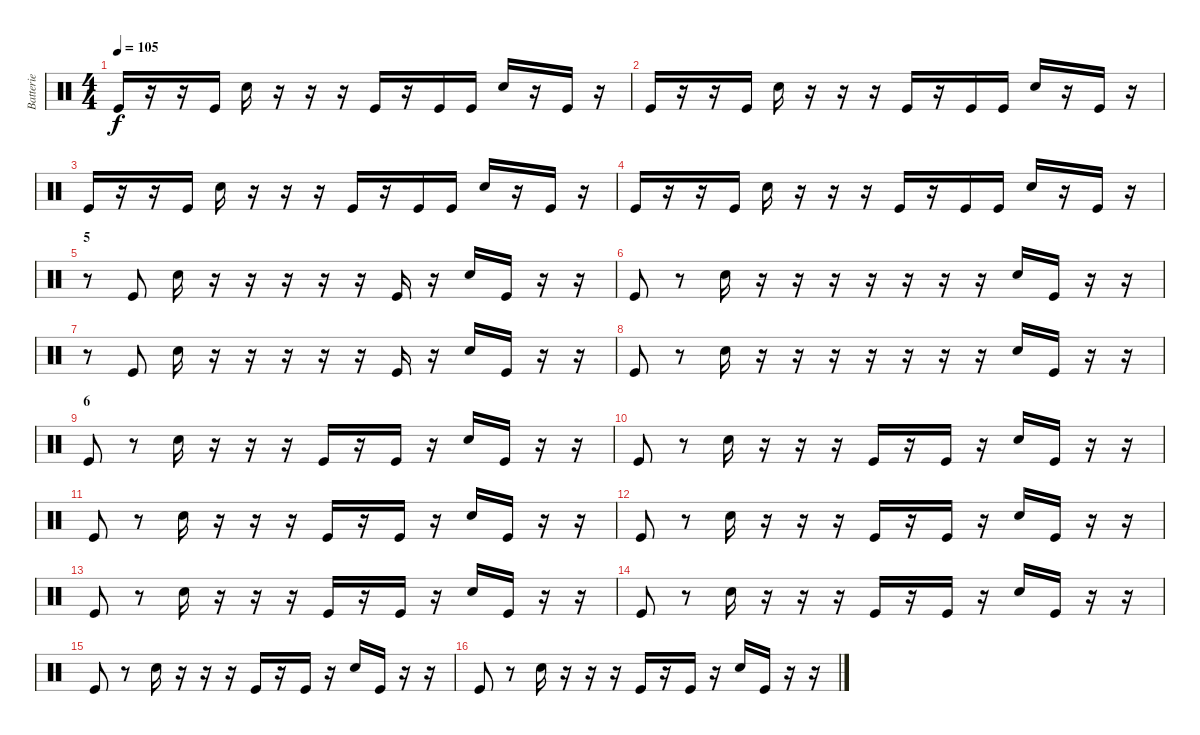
\track ("Batterie" "Batterie") {instrument percussion}
\staff {score}
\articulation defaults
\ts (4 4)
\tempo 105
\clef neutral
\ks c "Kick (hit)".16{dy f}
r.16 r.16 "Kick (hit)".16 "Electric Snare (hit)".16 r.16 r.16 r.16 "Kick (hit)".16 r.16 "Kick (hit)".16 "Kick (hit)".16 "Electric Snare (hit)".16 r.16 "Kick (hit)".16 r.16 |
"Kick (hit)".16 r.16 r.16 "Kick (hit)".16 "Electric Snare (hit)".16 r.16 r.16 r.16 "Kick (hit)".16 r.16 "Kick (hit)".16 "Kick (hit)".16 "Electric Snare (hit)".16 r.16 "Kick (hit)".16 r.16 |
"Kick (hit)".16 r.16 r.16 "Kick (hit)".16 "Electric Snare (hit)".16 r.16 r.16 r.16 "Kick (hit)".16 r.16 "Kick (hit)".16 "Kick (hit)".16 "Electric Snare (hit)".16 r.16 "Kick (hit)".16 r.16 |
"Kick (hit)".16 r.16 r.16 "Kick (hit)".16 "Electric Snare (hit)".16 r.16 r.16 r.16 "Kick (hit)".16 r.16 "Kick (hit)".16 "Kick (hit)".16 "Electric Snare (hit)".16 r.16 "Kick (hit)".16 r.16 |
\section ("" "5")
r.8 "Kick (hit)".8 "Electric Snare (hit)".16 r.16 r.16 r.16 r.16 r.16 "Kick (hit)".16 r.16 "Electric Snare (hit)".16 "Kick (hit)".16 r.16 r.16 |
"Kick (hit)".8 r.8 "Electric Snare (hit)".16 r.16 r.16 r.16 r.16 r.16 r.16 r.16 "Electric Snare (hit)".16 "Kick (hit)".16 r.16 r.16 |
r.8 "Kick (hit)".8 "Electric Snare (hit)".16 r.16 r.16 r.16 r.16 r.16 "Kick (hit)".16 r.16 "Electric Snare (hit)".16 "Kick (hit)".16 r.16 r.16 |
"Kick (hit)".8 r.8 "Electric Snare (hit)".16 r.16 r.16 r.16 r.16 r.16 r.16 r.16 "Electric Snare (hit)".16 "Kick (hit)".16 r.16 r.16 |
\section ("" "6")
"Kick (hit)".8 r.8 "Electric Snare (hit)".16 r.16 r.16 r.16 "Kick (hit)".16 r.16 "Kick (hit)".16 r.16 "Electric Snare (hit)".16 "Kick (hit)".16 r.16 r.16 |
"Kick (hit)".8 r.8 "Electric Snare (hit)".16 r.16 r.16 r.16 "Kick (hit)".16 r.16 "Kick (hit)".16 r.16 "Electric Snare (hit)".16 "Kick (hit)".16 r.16 r.16 |
"Kick (hit)".8 r.8 "Electric Snare (hit)".16 r.16 r.16 r.16 "Kick (hit)".16 r.16 "Kick (hit)".16 r.16 "Electric Snare (hit)".16 "Kick (hit)".16 r.16 r.16 |
"Kick (hit)".8 r.8 "Electric Snare (hit)".16 r.16 r.16 r.16 "Kick (hit)".16 r.16 "Kick (hit)".16 r.16 "Electric Snare (hit)".16 "Kick (hit)".16 r.16 r.16 |
"Kick (hit)".8 r.8 "Electric Snare (hit)".16 r.16 r.16 r.16 "Kick (hit)".16 r.16 "Kick (hit)".16 r.16 "Electric Snare (hit)".16 "Kick (hit)".16 r.16 r.16 |
"Kick (hit)".8 r.8 "Electric Snare (hit)".16 r.16 r.16 r.16 "Kick (hit)".16 r.16 "Kick (hit)".16 r.16 "Electric Snare (hit)".16 "Kick (hit)".16 r.16 r.16 |
"Kick (hit)".8 r.8 "Electric Snare (hit)".16 r.16 r.16 r.16 "Kick (hit)".16 r.16 "Kick (hit)".16 r.16 "Electric Snare (hit)".16 "Kick (hit)".16 r.16 r.16 |
"Kick (hit)".8 r.8 "Electric Snare (hit)".16 r.16 r.16 r.16 "Kick (hit)".16 r.16 "Kick (hit)".16 r.16 "Electric Snare (hit)".16 "Kick (hit)".16 r.16 r.16
